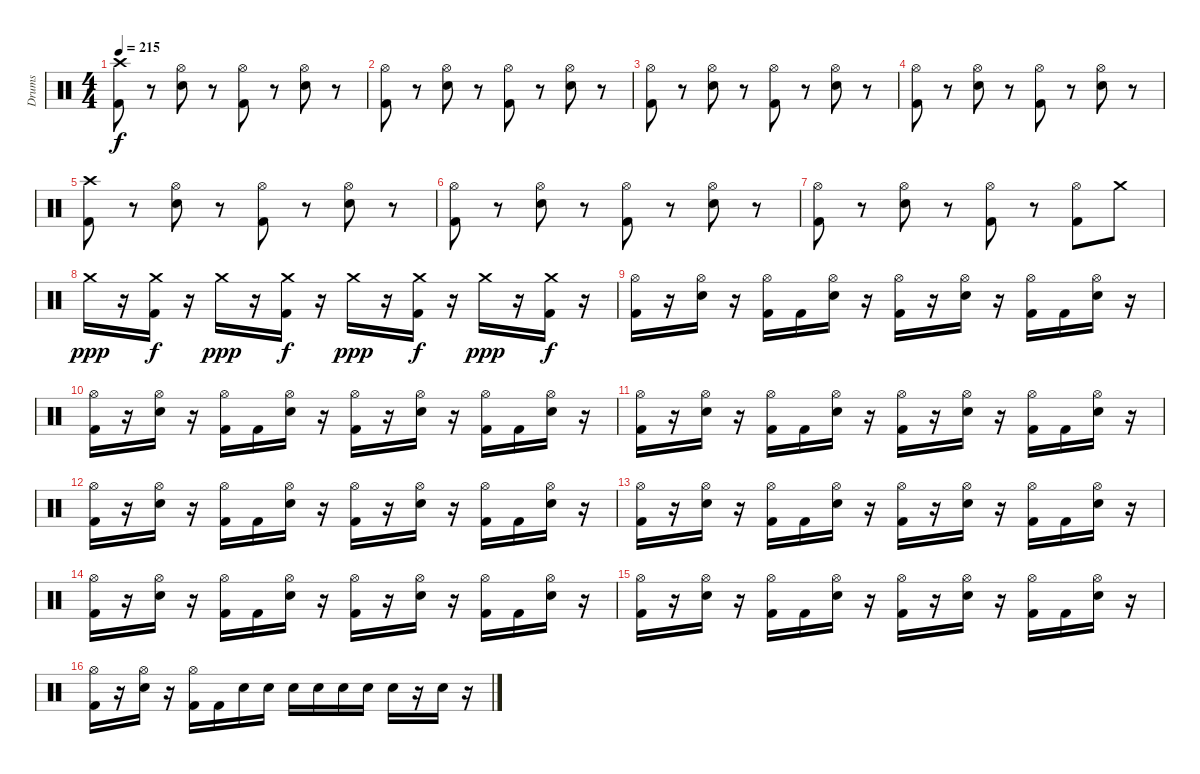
\track ("Drums" "Drums") {instrument percussion}
\staff {score}
\articulation defaults
\ts (4 4)
\tempo 215
\clef neutral
\ks c
("Crash high (hit)" "Kick (hit) 2").8{dy f} r.8 ("Hi-Hat (open)" "Snare (hit) 2").8 r.8 ("Hi-Hat (open)" "Kick (hit) 2").8 r.8 ("Hi-Hat (open)" "Snare (hit) 2").8 r.8 |
("Hi-Hat (open)" "Kick (hit) 2").8 r.8 ("Hi-Hat (open)" "Snare (hit) 2").8 r.8 ("Hi-Hat (open)" "Kick (hit) 2").8 r.8 ("Hi-Hat (open)" "Snare (hit) 2").8 r.8 |
("Hi-Hat (open)" "Kick (hit) 2").8 r.8 ("Hi-Hat (open)" "Snare (hit) 2").8 r.8 ("Hi-Hat (open)" "Kick (hit) 2").8 r.8 ("Hi-Hat (open)" "Snare (hit) 2").8 r.8 |
("Hi-Hat (open)" "Kick (hit) 2").8 r.8 ("Hi-Hat (open)" "Snare (hit) 2").8 r.8 ("Hi-Hat (open)" "Kick (hit) 2").8 r.8 ("Hi-Hat (open)" "Snare (hit) 2").8 r.8 |
("Crash high (hit)" "Kick (hit) 2").8 r.8 ("Hi-Hat (open)" "Snare (hit) 2").8 r.8 ("Hi-Hat (open)" "Kick (hit) 2").8 r.8 ("Hi-Hat (open)" "Snare (hit) 2").8 r.8 |
("Hi-Hat (open)" "Kick (hit) 2").8 r.8 ("Hi-Hat (open)" "Snare (hit) 2").8 r.8 ("Hi-Hat (open)" "Kick (hit) 2").8 r.8 ("Hi-Hat (open)" "Snare (hit) 2").8 r.8 |
("Hi-Hat (open)" "Kick (hit) 2").8 r.8 ("Hi-Hat (open)" "Snare (hit) 2").8 r.8 ("Hi-Hat (open)" "Kick (hit) 2").8 r.8 ("Hi-Hat (open)" "Kick (hit) 2").8 "Crash medium (hit)".8 |
"Crash medium (hit)".16{dy ppp} r.16 ("Crash medium (hit)" "Kick (hit) 2").16{dy f} r.16 "Crash medium (hit)".16{dy ppp} r.16 ("Crash medium (hit)" "Kick (hit) 2").16{dy f} r.16 "Crash medium (hit)".16{dy ppp} r.16 ("Crash medium (hit)" "Kick (hit) 2").16{dy f} r.16 "Crash medium (hit)".16{dy ppp} r.16 ("Crash medium (hit)" "Kick (hit) 2").16{dy f} r.16 |
("Hi-Hat (open)" "Kick (hit) 2").16 r.16 ("Hi-Hat (open)" "Snare (hit) 2").16 r.16 ("Hi-Hat (open)" "Kick (hit) 2").16 "Kick (hit) 2".16 ("Hi-Hat (open)" "Snare (hit) 2").16 r.16 ("Hi-Hat (open)" "Kick (hit) 2").16 r.16 ("Hi-Hat (open)" "Snare (hit) 2").16 r.16 ("Hi-Hat (open)" "Kick (hit) 2").16 "Kick (hit) 2".16 ("Hi-Hat (open)" "Snare (hit) 2").16 r.16 |
("Hi-Hat (open)" "Kick (hit) 2").16 r.16 ("Hi-Hat (open)" "Snare (hit) 2").16 r.16 ("Hi-Hat (open)" "Kick (hit) 2").16 "Kick (hit) 2".16 ("Hi-Hat (open)" "Snare (hit) 2").16 r.16 ("Hi-Hat (open)" "Kick (hit) 2").16 r.16 ("Hi-Hat (open)" "Snare (hit) 2").16 r.16 ("Hi-Hat (open)" "Kick (hit) 2").16 "Kick (hit) 2".16 ("Hi-Hat (open)" "Snare (hit) 2").16 r.16 |
("Hi-Hat (open)" "Kick (hit) 2").16 r.16 ("Hi-Hat (open)" "Snare (hit) 2").16 r.16 ("Hi-Hat (open)" "Kick (hit) 2").16 "Kick (hit) 2".16 ("Hi-Hat (open)" "Snare (hit) 2").16 r.16 ("Hi-Hat (open)" "Kick (hit) 2").16 r.16 ("Hi-Hat (open)" "Snare (hit) 2").16 r.16 ("Hi-Hat (open)" "Kick (hit) 2").16 "Kick (hit) 2".16 ("Hi-Hat (open)" "Snare (hit) 2").16 r.16 |
("Hi-Hat (open)" "Kick (hit) 2").16 r.16 ("Hi-Hat (open)" "Snare (hit) 2").16 r.16 ("Hi-Hat (open)" "Kick (hit) 2").16 "Kick (hit) 2".16 ("Hi-Hat (open)" "Snare (hit) 2").16 r.16 ("Hi-Hat (open)" "Kick (hit) 2").16 r.16 ("Hi-Hat (open)" "Snare (hit) 2").16 r.16 ("Hi-Hat (open)" "Kick (hit) 2").16 "Kick (hit) 2".16 ("Hi-Hat (open)" "Snare (hit) 2").16 r.16 |
("Hi-Hat (open)" "Kick (hit) 2").16 r.16 ("Hi-Hat (open)" "Snare (hit) 2").16 r.16 ("Hi-Hat (open)" "Kick (hit) 2").16 "Kick (hit) 2".16 ("Hi-Hat (open)" "Snare (hit) 2").16 r.16 ("Hi-Hat (open)" "Kick (hit) 2").16 r.16 ("Hi-Hat (open)" "Snare (hit) 2").16 r.16 ("Hi-Hat (open)" "Kick (hit) 2").16 "Kick (hit) 2".16 ("Hi-Hat (open)" "Snare (hit) 2").16 r.16 |
("Hi-Hat (open)" "Kick (hit) 2").16 r.16 ("Hi-Hat (open)" "Snare (hit) 2").16 r.16 ("Hi-Hat (open)" "Kick (hit) 2").16 "Kick (hit) 2".16 ("Hi-Hat (open)" "Snare (hit) 2").16 r.16 ("Hi-Hat (open)" "Kick (hit) 2").16 r.16 ("Hi-Hat (open)" "Snare (hit) 2").16 r.16 ("Hi-Hat (open)" "Kick (hit) 2").16 "Kick (hit) 2".16 ("Hi-Hat (open)" "Snare (hit) 2").16 r.16 |
("Hi-Hat (open)" "Kick (hit) 2").16 r.16 ("Hi-Hat (open)" "Snare (hit) 2").16 r.16 ("Hi-Hat (open)" "Kick (hit) 2").16 "Kick (hit) 2".16 ("Hi-Hat (open)" "Snare (hit) 2").16 r.16 ("Hi-Hat (open)" "Kick (hit) 2").16 r.16 ("Hi-Hat (open)" "Snare (hit) 2").16 r.16 ("Hi-Hat (open)" "Kick (hit) 2").16 "Kick (hit) 2".16 ("Hi-Hat (open)" "Snare (hit) 2").16 r.16 |
("Hi-Hat (open)" "Kick (hit) 2").16 r.16 ("Hi-Hat (open)" "Snare (hit) 2").16 r.16 ("Hi-Hat (open)" "Kick (hit) 2").16 "Kick (hit) 2".16 "Snare (hit) 2".16 "Snare (hit) 2".16 "Snare (hit) 2".16 "Snare (hit) 2".16 "Snare (hit) 2".16 "Snare (hit) 2".16 "Snare (hit) 2".16 r.16 "Snare (hit) 2".16 r.16
